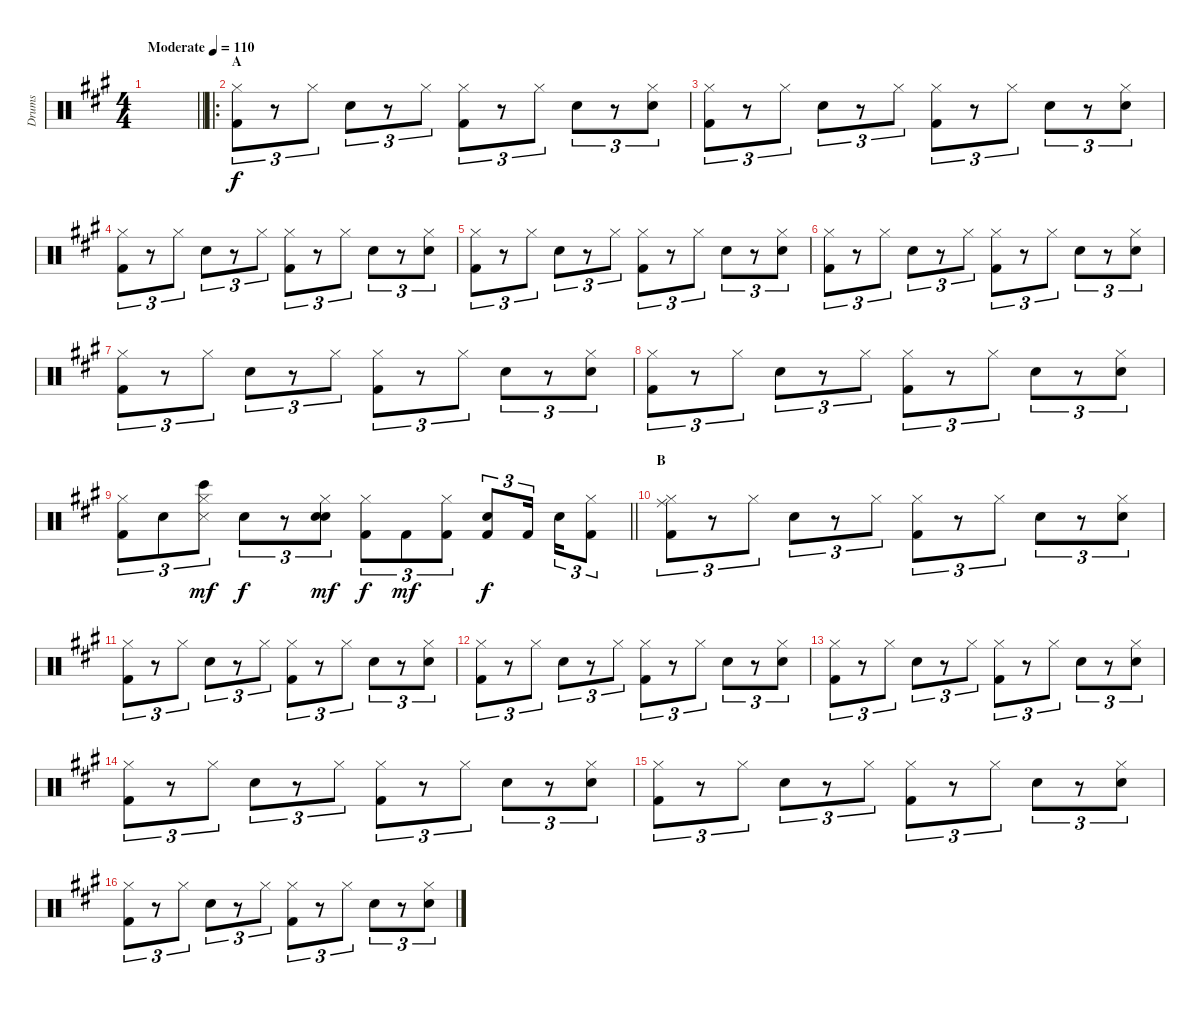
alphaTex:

\track ("Drums" "Drums") {instrument percussion}
\staff {score}
\articulation defaults
\ts (4 4)
\tempo (110 "Moderate")
\clef neutral
\barLineRight lightlight
\ks a
|
\ro
\section ("" "A")
("Hi-Hat (closed)" "Kick (hit) 2").8{tu (3 2)} r.8{tu (3 2)} "Hi-Hat (closed)".8{tu (3 2)} "Snare (hit) 2".8{tu (3 2)} r.8{tu (3 2)} "Hi-Hat (closed)".8{tu (3 2)} ("Hi-Hat (closed)" "Kick (hit) 2").8{tu (3 2)} r.8{tu (3 2)} "Hi-Hat (closed)".8{tu (3 2)} "Snare (hit) 2".8{tu (3 2)} r.8{tu (3 2)} ("Hi-Hat (closed)" "Snare (hit) 2").8{tu (3 2)} |
("Hi-Hat (closed)" "Kick (hit) 2").8{tu (3 2)} r.8{tu (3 2)} "Hi-Hat (closed)".8{tu (3 2)} "Snare (hit) 2".8{tu (3 2)} r.8{tu (3 2)} "Hi-Hat (closed)".8{tu (3 2)} ("Hi-Hat (closed)" "Kick (hit) 2").8{tu (3 2)} r.8{tu (3 2)} "Hi-Hat (closed)".8{tu (3 2)} "Snare (hit) 2".8{tu (3 2)} r.8{tu (3 2)} ("Hi-Hat (closed)" "Snare (hit) 2").8{tu (3 2)} |
("Hi-Hat (closed)" "Kick (hit) 2").8{tu (3 2)} r.8{tu (3 2)} "Hi-Hat (closed)".8{tu (3 2)} "Snare (hit) 2".8{tu (3 2)} r.8{tu (3 2)} "Hi-Hat (closed)".8{tu (3 2)} ("Hi-Hat (closed)" "Kick (hit) 2").8{tu (3 2)} r.8{tu (3 2)} "Hi-Hat (closed)".8{tu (3 2)} "Snare (hit) 2".8{tu (3 2)} r.8{tu (3 2)} ("Hi-Hat (closed)" "Snare (hit) 2").8{tu (3 2)} |
("Hi-Hat (closed)" "Kick (hit) 2").8{tu (3 2)} r.8{tu (3 2)} "Hi-Hat (closed)".8{tu (3 2)} "Snare (hit) 2".8{tu (3 2)} r.8{tu (3 2)} "Hi-Hat (closed)".8{tu (3 2)} ("Hi-Hat (closed)" "Kick (hit) 2").8{tu (3 2)} r.8{tu (3 2)} "Hi-Hat (closed)".8{tu (3 2)} "Snare (hit) 2".8{tu (3 2)} r.8{tu (3 2)} ("Hi-Hat (closed)" "Snare (hit) 2").8{tu (3 2)} |
("Hi-Hat (closed)" "Kick (hit) 2").8{tu (3 2)} r.8{tu (3 2)} "Hi-Hat (closed)".8{tu (3 2)} "Snare (hit) 2".8{tu (3 2)} r.8{tu (3 2)} "Hi-Hat (closed)".8{tu (3 2)} ("Hi-Hat (closed)" "Kick (hit) 2").8{tu (3 2)} r.8{tu (3 2)} "Hi-Hat (closed)".8{tu (3 2)} "Snare (hit) 2".8{tu (3 2)} r.8{tu (3 2)} ("Hi-Hat (closed)" "Snare (hit) 2").8{tu (3 2)} |
("Hi-Hat (closed)" "Kick (hit) 2").8{tu (3 2)} r.8{tu (3 2)} "Hi-Hat (closed)".8{tu (3 2)} "Snare (hit) 2".8{tu (3 2)} r.8{tu (3 2)} "Hi-Hat (closed)".8{tu (3 2)} ("Hi-Hat (closed)" "Kick (hit) 2").8{tu (3 2)} r.8{tu (3 2)} "Hi-Hat (closed)".8{tu (3 2)} "Snare (hit) 2".8{tu (3 2)} r.8{tu (3 2)} ("Hi-Hat (closed)" "Snare (hit) 2").8{tu (3 2)} |
("Hi-Hat (closed)" "Kick (hit) 2").8{tu (3 2)} r.8{tu (3 2)} "Hi-Hat (closed)".8{tu (3 2)} "Snare (hit) 2".8{tu (3 2)} r.8{tu (3 2)} "Hi-Hat (closed)".8{tu (3 2)} ("Hi-Hat (closed)" "Kick (hit) 2").8{tu (3 2)} r.8{tu (3 2)} "Hi-Hat (closed)".8{tu (3 2)} "Snare (hit) 2".8{tu (3 2)} r.8{tu (3 2)} ("Hi-Hat (closed)" "Snare (hit) 2").8{tu (3 2)} |
\barLineRight lightlight
("Hi-Hat (closed)" "Kick (hit) 2").8{tu (3 2)} "Snare (hit) 2".8{tu (3 2)} ("Hi-Hat (closed)" "Metronome (hit)" "Bongo High (hit)").8{tu (3 2) dy mf} "Snare (hit) 2".8{tu (3 2) dy f} r.8{tu (3 2)} ("Hi-Hat (closed)" "Snare (hit) 2" "Snare (hit) 2").8{tu (3 2) dy mf} ("Hi-Hat (closed)" "Kick (hit) 2").8{tu (3 2) dy f} "Kick (hit) 2".8{tu (3 2) dy mf} ("Hi-Hat (closed)" "Kick (hit) 2").8{tu (3 2)} ("Snare (hit) 2" "Kick (hit) 2").8{tu (3 2) dy f} "Kick (hit) 2".16{tu (3 2) beam splitsecondary} "Snare (hit) 2".16{tu (3 2)} ("Hi-Hat (closed)" "Kick (hit) 2").8{tu (3 2)} |
\section ("" "B")
("Ride (middle)" "Hi-Hat (closed)" "Kick (hit) 2").8{tu (3 2)} r.8{tu (3 2)} "Hi-Hat (closed)".8{tu (3 2)} "Snare (hit) 2".8{tu (3 2)} r.8{tu (3 2)} "Hi-Hat (closed)".8{tu (3 2)} ("Hi-Hat (closed)" "Kick (hit) 2").8{tu (3 2)} r.8{tu (3 2)} "Hi-Hat (closed)".8{tu (3 2)} "Snare (hit) 2".8{tu (3 2)} r.8{tu (3 2)} ("Hi-Hat (closed)" "Snare (hit) 2").8{tu (3 2)} |
("Hi-Hat (closed)" "Kick (hit) 2").8{tu (3 2)} r.8{tu (3 2)} "Hi-Hat (closed)".8{tu (3 2)} "Snare (hit) 2".8{tu (3 2)} r.8{tu (3 2)} "Hi-Hat (closed)".8{tu (3 2)} ("Hi-Hat (closed)" "Kick (hit) 2").8{tu (3 2)} r.8{tu (3 2)} "Hi-Hat (closed)".8{tu (3 2)} "Snare (hit) 2".8{tu (3 2)} r.8{tu (3 2)} ("Hi-Hat (closed)" "Snare (hit) 2").8{tu (3 2)} |
("Hi-Hat (closed)" "Kick (hit) 2").8{tu (3 2)} r.8{tu (3 2)} "Hi-Hat (closed)".8{tu (3 2)} "Snare (hit) 2".8{tu (3 2)} r.8{tu (3 2)} "Hi-Hat (closed)".8{tu (3 2)} ("Hi-Hat (closed)" "Kick (hit) 2").8{tu (3 2)} r.8{tu (3 2)} "Hi-Hat (closed)".8{tu (3 2)} "Snare (hit) 2".8{tu (3 2)} r.8{tu (3 2)} ("Hi-Hat (closed)" "Snare (hit) 2").8{tu (3 2)} |
("Hi-Hat (closed)" "Kick (hit) 2").8{tu (3 2)} r.8{tu (3 2)} "Hi-Hat (closed)".8{tu (3 2)} "Snare (hit) 2".8{tu (3 2)} r.8{tu (3 2)} "Hi-Hat (closed)".8{tu (3 2)} ("Hi-Hat (closed)" "Kick (hit) 2").8{tu (3 2)} r.8{tu (3 2)} "Hi-Hat (closed)".8{tu (3 2)} "Snare (hit) 2".8{tu (3 2)} r.8{tu (3 2)} ("Hi-Hat (closed)" "Snare (hit) 2").8{tu (3 2)} |
("Hi-Hat (closed)" "Kick (hit) 2").8{tu (3 2)} r.8{tu (3 2)} "Hi-Hat (closed)".8{tu (3 2)} "Snare (hit) 2".8{tu (3 2)} r.8{tu (3 2)} "Hi-Hat (closed)".8{tu (3 2)} ("Hi-Hat (closed)" "Kick (hit) 2").8{tu (3 2)} r.8{tu (3 2)} "Hi-Hat (closed)".8{tu (3 2)} "Snare (hit) 2".8{tu (3 2)} r.8{tu (3 2)} ("Hi-Hat (closed)" "Snare (hit) 2").8{tu (3 2)} |
("Hi-Hat (closed)" "Kick (hit) 2").8{tu (3 2)} r.8{tu (3 2)} "Hi-Hat (closed)".8{tu (3 2)} "Snare (hit) 2".8{tu (3 2)} r.8{tu (3 2)} "Hi-Hat (closed)".8{tu (3 2)} ("Hi-Hat (closed)" "Kick (hit) 2").8{tu (3 2)} r.8{tu (3 2)} "Hi-Hat (closed)".8{tu (3 2)} "Snare (hit) 2".8{tu (3 2)} r.8{tu (3 2)} ("Hi-Hat (closed)" "Snare (hit) 2").8{tu (3 2)} |
("Hi-Hat (closed)" "Kick (hit) 2").8{tu (3 2)} r.8{tu (3 2)} "Hi-Hat (closed)".8{tu (3 2)} "Snare (hit) 2".8{tu (3 2)} r.8{tu (3 2)} "Hi-Hat (closed)".8{tu (3 2)} ("Hi-Hat (closed)" "Kick (hit) 2").8{tu (3 2)} r.8{tu (3 2)} "Hi-Hat (closed)".8{tu (3 2)} "Snare (hit) 2".8{tu (3 2)} r.8{tu (3 2)} ("Hi-Hat (closed)" "Snare (hit) 2").8{tu (3 2)}
